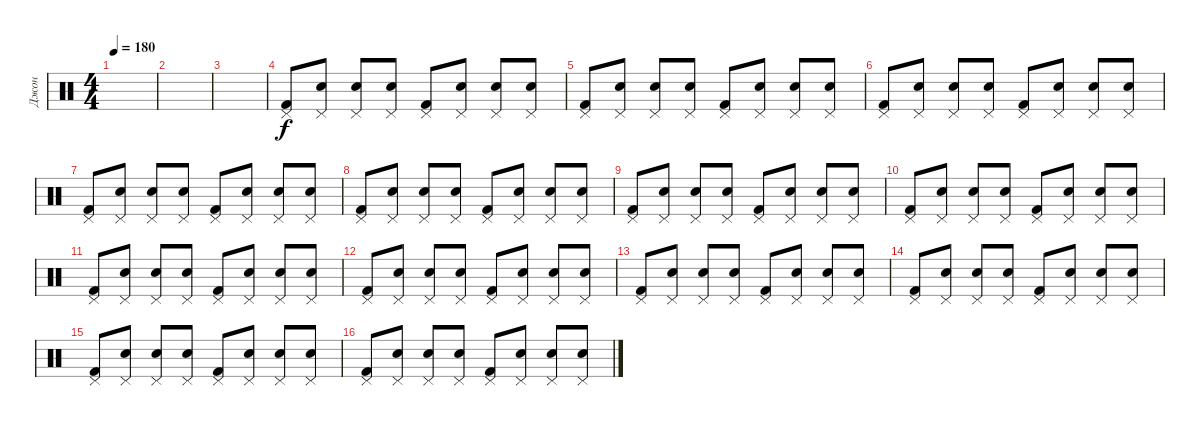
\track ("Джон" "Джон") {instrument percussion}
\staff {score}
\articulation defaults
\ts (4 4)
\tempo 180
\clef neutral
\ks c
|
|
|
("Pedal Hi-Hat (hit)" "Kick (hit) 2").8 ("Pedal Hi-Hat (hit)" "Snare (hit)").8 ("Pedal Hi-Hat (hit)" "Electric Snare (hit)").8 ("Pedal Hi-Hat (hit)" "Snare (hit)").8 ("Pedal Hi-Hat (hit)" "Kick (hit) 2").8 ("Pedal Hi-Hat (hit)" "Snare (hit)").8 ("Pedal Hi-Hat (hit)" "Electric Snare (hit)").8 ("Pedal Hi-Hat (hit)" "Snare (hit)").8 |
("Pedal Hi-Hat (hit)" "Kick (hit) 2").8 ("Pedal Hi-Hat (hit)" "Snare (hit)").8 ("Pedal Hi-Hat (hit)" "Electric Snare (hit)").8 ("Pedal Hi-Hat (hit)" "Snare (hit)").8 ("Pedal Hi-Hat (hit)" "Kick (hit) 2").8 ("Pedal Hi-Hat (hit)" "Snare (hit)").8 ("Pedal Hi-Hat (hit)" "Electric Snare (hit)").8 ("Pedal Hi-Hat (hit)" "Snare (hit)").8 |
("Pedal Hi-Hat (hit)" "Kick (hit) 2").8 ("Pedal Hi-Hat (hit)" "Snare (hit)").8 ("Pedal Hi-Hat (hit)" "Electric Snare (hit)").8 ("Pedal Hi-Hat (hit)" "Snare (hit)").8 ("Pedal Hi-Hat (hit)" "Kick (hit) 2").8 ("Pedal Hi-Hat (hit)" "Snare (hit)").8 ("Pedal Hi-Hat (hit)" "Electric Snare (hit)").8 ("Pedal Hi-Hat (hit)" "Snare (hit)").8 |
("Pedal Hi-Hat (hit)" "Kick (hit) 2").8 ("Pedal Hi-Hat (hit)" "Snare (hit)").8 ("Pedal Hi-Hat (hit)" "Electric Snare (hit)").8 ("Pedal Hi-Hat (hit)" "Snare (hit)").8 ("Pedal Hi-Hat (hit)" "Kick (hit) 2").8 ("Pedal Hi-Hat (hit)" "Snare (hit)").8 ("Pedal Hi-Hat (hit)" "Electric Snare (hit)").8 ("Pedal Hi-Hat (hit)" "Snare (hit)").8 |
("Pedal Hi-Hat (hit)" "Kick (hit) 2").8 ("Pedal Hi-Hat (hit)" "Snare (hit)").8 ("Pedal Hi-Hat (hit)" "Electric Snare (hit)").8 ("Pedal Hi-Hat (hit)" "Snare (hit)").8 ("Pedal Hi-Hat (hit)" "Kick (hit) 2").8 ("Pedal Hi-Hat (hit)" "Snare (hit)").8 ("Pedal Hi-Hat (hit)" "Electric Snare (hit)").8 ("Pedal Hi-Hat (hit)" "Snare (hit)").8 |
("Pedal Hi-Hat (hit)" "Kick (hit) 2").8 ("Pedal Hi-Hat (hit)" "Snare (hit)").8 ("Pedal Hi-Hat (hit)" "Electric Snare (hit)").8 ("Pedal Hi-Hat (hit)" "Snare (hit)").8 ("Pedal Hi-Hat (hit)" "Kick (hit) 2").8 ("Pedal Hi-Hat (hit)" "Snare (hit)").8 ("Pedal Hi-Hat (hit)" "Electric Snare (hit)").8 ("Pedal Hi-Hat (hit)" "Snare (hit)").8 |
("Pedal Hi-Hat (hit)" "Kick (hit) 2").8 ("Pedal Hi-Hat (hit)" "Snare (hit)").8 ("Pedal Hi-Hat (hit)" "Electric Snare (hit)").8 ("Pedal Hi-Hat (hit)" "Snare (hit)").8 ("Pedal Hi-Hat (hit)" "Kick (hit) 2").8 ("Pedal Hi-Hat (hit)" "Snare (hit)").8 ("Pedal Hi-Hat (hit)" "Electric Snare (hit)").8 ("Pedal Hi-Hat (hit)" "Snare (hit)").8 |
("Pedal Hi-Hat (hit)" "Kick (hit) 2").8 ("Pedal Hi-Hat (hit)" "Snare (hit)").8 ("Pedal Hi-Hat (hit)" "Electric Snare (hit)").8 ("Pedal Hi-Hat (hit)" "Snare (hit)").8 ("Pedal Hi-Hat (hit)" "Kick (hit) 2").8 ("Pedal Hi-Hat (hit)" "Snare (hit)").8 ("Pedal Hi-Hat (hit)" "Electric Snare (hit)").8 ("Pedal Hi-Hat (hit)" "Snare (hit)").8 |
("Pedal Hi-Hat (hit)" "Kick (hit) 2").8 ("Pedal Hi-Hat (hit)" "Snare (hit)").8 ("Pedal Hi-Hat (hit)" "Electric Snare (hit)").8 ("Pedal Hi-Hat (hit)" "Snare (hit)").8 ("Pedal Hi-Hat (hit)" "Kick (hit) 2").8 ("Pedal Hi-Hat (hit)" "Snare (hit)").8 ("Pedal Hi-Hat (hit)" "Electric Snare (hit)").8 ("Pedal Hi-Hat (hit)" "Snare (hit)").8 |
("Pedal Hi-Hat (hit)" "Kick (hit) 2").8 ("Pedal Hi-Hat (hit)" "Snare (hit)").8 ("Pedal Hi-Hat (hit)" "Electric Snare (hit)").8 ("Pedal Hi-Hat (hit)" "Snare (hit)").8 ("Pedal Hi-Hat (hit)" "Kick (hit) 2").8 ("Pedal Hi-Hat (hit)" "Snare (hit)").8 ("Pedal Hi-Hat (hit)" "Electric Snare (hit)").8 ("Pedal Hi-Hat (hit)" "Snare (hit)").8 |
("Pedal Hi-Hat (hit)" "Kick (hit) 2").8 ("Pedal Hi-Hat (hit)" "Snare (hit)").8 ("Pedal Hi-Hat (hit)" "Electric Snare (hit)").8 ("Pedal Hi-Hat (hit)" "Snare (hit)").8 ("Pedal Hi-Hat (hit)" "Kick (hit) 2").8 ("Pedal Hi-Hat (hit)" "Snare (hit)").8 ("Pedal Hi-Hat (hit)" "Electric Snare (hit)").8 ("Pedal Hi-Hat (hit)" "Snare (hit)").8 |
("Pedal Hi-Hat (hit)" "Kick (hit) 2").8 ("Pedal Hi-Hat (hit)" "Snare (hit)").8 ("Pedal Hi-Hat (hit)" "Electric Snare (hit)").8 ("Pedal Hi-Hat (hit)" "Snare (hit)").8 ("Pedal Hi-Hat (hit)" "Kick (hit) 2").8 ("Pedal Hi-Hat (hit)" "Snare (hit)").8 ("Pedal Hi-Hat (hit)" "Electric Snare (hit)").8 ("Pedal Hi-Hat (hit)" "Snare (hit)").8 |
("Pedal Hi-Hat (hit)" "Kick (hit) 2").8 ("Pedal Hi-Hat (hit)" "Snare (hit)").8 ("Pedal Hi-Hat (hit)" "Electric Snare (hit)").8 ("Pedal Hi-Hat (hit)" "Snare (hit)").8 ("Pedal Hi-Hat (hit)" "Kick (hit) 2").8 ("Pedal Hi-Hat (hit)" "Snare (hit)").8 ("Pedal Hi-Hat (hit)" "Electric Snare (hit)").8 ("Pedal Hi-Hat (hit)" "Snare (hit)").8
